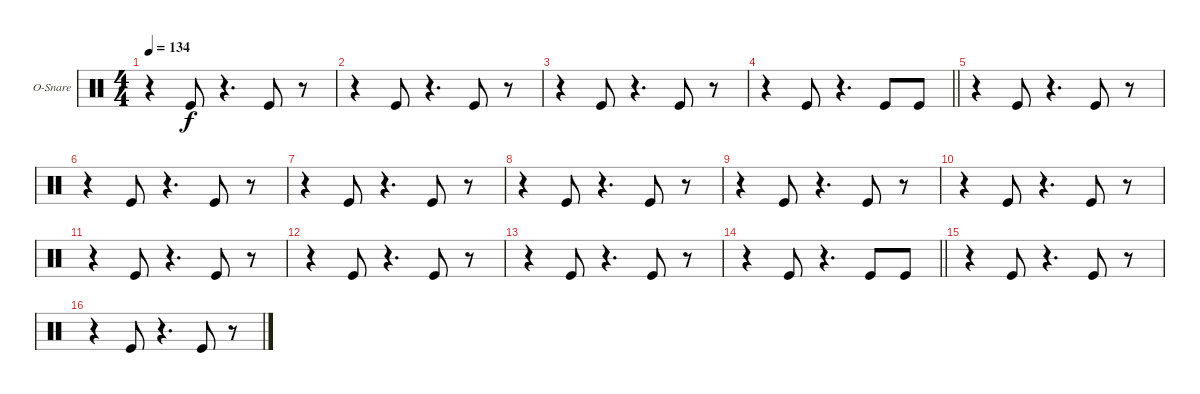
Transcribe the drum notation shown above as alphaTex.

\bracketExtendMode groupsimilarinstruments
\firstSystemTrackNameOrientation horizontal
\otherSystemsTrackNameOrientation horizontal
\track ("Open Snare" "O-Snare") {instrument percussion}
\staff {score}
\articulation defaults
\ts (4 4)
\tempo 134
\clef neutral
\ks c
r.4{dy f} "Kick (hit)".8 r.4{d} "Kick (hit)".8 r.8 |
r.4 "Kick (hit)".8 r.4{d} "Kick (hit)".8 r.8 |
r.4 "Kick (hit)".8 r.4{d} "Kick (hit)".8 r.8 |
\scale
0.25
\barLineRight lightlight
r.4 "Kick (hit)".8 r.4{d} "Kick (hit)".8 "Kick (hit)".8 |
\scale
0.25 r.4 "Kick (hit)".8 r.4{d} "Kick (hit)".8 r.8 |
\scale
0.25 r.4 "Kick (hit)".8 r.4{d} "Kick (hit)".8 r.8 |
\scale
0.25 r.4 "Kick (hit)".8 r.4{d} "Kick (hit)".8 r.8 |
\scale
0.25 r.4 "Kick (hit)".8 r.4{d} "Kick (hit)".8 r.8 |
\scale
0.25 r.4 "Kick (hit)".8 r.4{d} "Kick (hit)".8 r.8 |
\scale
0.25 r.4 "Kick (hit)".8 r.4{d} "Kick (hit)".8 r.8 |
\scale
0.25 r.4 "Kick (hit)".8 r.4{d} "Kick (hit)".8 r.8 |
\scale
0.25 r.4 "Kick (hit)".8 r.4{d} "Kick (hit)".8 r.8 |
\scale
0.25 r.4 "Kick (hit)".8 r.4{d} "Kick (hit)".8 r.8 |
\scale
0.25
\barLineRight lightlight
r.4 "Kick (hit)".8 r.4{d} "Kick (hit)".8 "Kick (hit)".8 |
\scale
0.25 r.4 "Kick (hit)".8 r.4{d} "Kick (hit)".8 r.8 |
\scale
0.25 r.4 "Kick (hit)".8 r.4{d} "Kick (hit)".8 r.8
